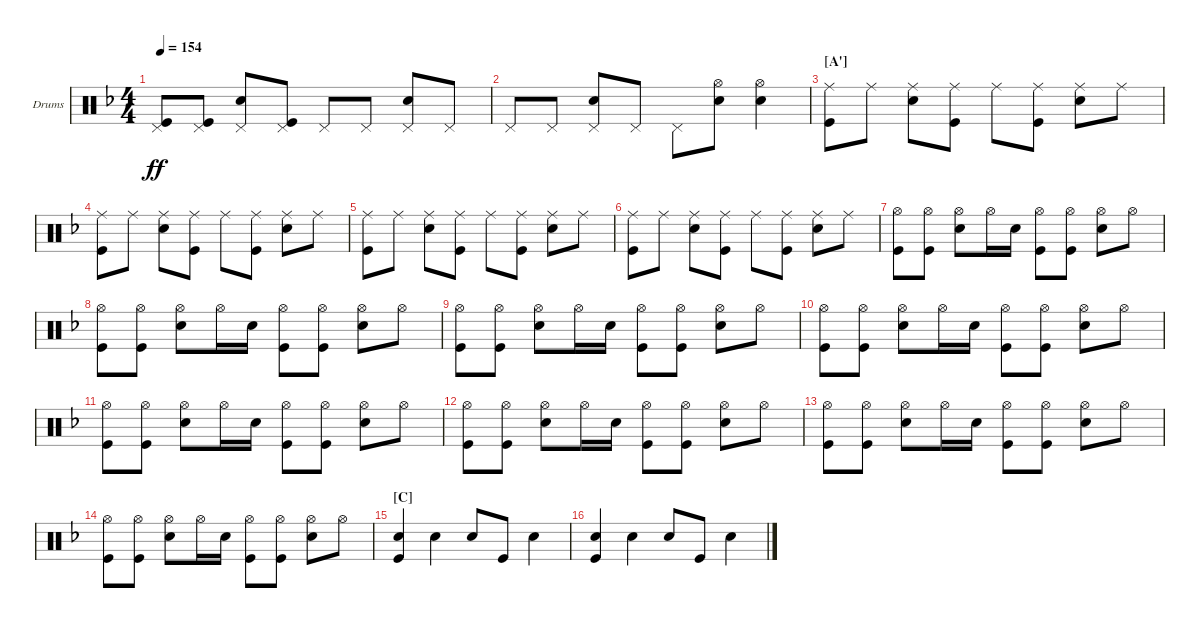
\bracketExtendMode groupsimilarinstruments
\firstSystemTrackNameOrientation horizontal
\otherSystemsTrackNameOrientation horizontal
\track ("Fabrizio Moretti" "Drums") {instrument percussion}
\staff {score}
\articulation defaults
\ts (4 4)
\tempo 154
\clef neutral
\ks f
("Pedal Hi-Hat (hit)" "Kick (hit)").8{dy ff} ("Pedal Hi-Hat (hit)" "Kick (hit)").8 ("Pedal Hi-Hat (hit)" "Snare (hit) 2").8 ("Pedal Hi-Hat (hit)" "Kick (hit)").8 "Pedal Hi-Hat (hit)".8 "Pedal Hi-Hat (hit)".8 ("Pedal Hi-Hat (hit)" "Snare (hit) 2").8 "Pedal Hi-Hat (hit)".8 |
"Pedal Hi-Hat (hit)".8 "Pedal Hi-Hat (hit)".8 ("Pedal Hi-Hat (hit)" "Snare (hit) 2").8 "Pedal Hi-Hat (hit)".8 "Pedal Hi-Hat (hit)".8 ("Hi-Hat (open)" "Snare (hit) 2").8 ("Hi-Hat (open)" "Snare (hit) 2").4 |
\section ("A'" "")
("Ride (middle)" "Kick (hit)").8 "Ride (middle)".8 ("Ride (middle)" "Snare (hit) 2").8 ("Ride (middle)" "Kick (hit)").8 "Ride (middle)".8 ("Ride (middle)" "Kick (hit)").8 ("Ride (middle)" "Snare (hit) 2").8 "Ride (middle)".8 |
("Ride (middle)" "Kick (hit)").8 "Ride (middle)".8 ("Ride (middle)" "Snare (hit) 2").8 ("Ride (middle)" "Kick (hit)").8 "Ride (middle)".8 ("Ride (middle)" "Kick (hit)").8 ("Ride (middle)" "Snare (hit) 2").8 "Ride (middle)".8 |
("Ride (middle)" "Kick (hit)").8 "Ride (middle)".8 ("Ride (middle)" "Snare (hit) 2").8 ("Ride (middle)" "Kick (hit)").8 "Ride (middle)".8 ("Ride (middle)" "Kick (hit)").8 ("Ride (middle)" "Snare (hit) 2").8 "Ride (middle)".8 |
("Ride (middle)" "Kick (hit)").8 "Ride (middle)".8 ("Ride (middle)" "Snare (hit) 2").8 ("Ride (middle)" "Kick (hit)").8 "Ride (middle)".8 ("Ride (middle)" "Kick (hit)").8 ("Ride (middle)" "Snare (hit) 2").8 "Ride (middle)".8 |
("Hi-Hat (open)" "Kick (hit)").8 ("Hi-Hat (open)" "Kick (hit)").8 ("Hi-Hat (open)" "Snare (hit) 2").8 "Hi-Hat (open)".16 "Snare (hit) 2".16 ("Hi-Hat (open)" "Kick (hit)").8 ("Hi-Hat (open)" "Kick (hit)").8 ("Hi-Hat (open)" "Snare (hit) 2").8 "Hi-Hat (open)".8 |
("Hi-Hat (open)" "Kick (hit)").8 ("Hi-Hat (open)" "Kick (hit)").8 ("Hi-Hat (open)" "Snare (hit) 2").8 "Hi-Hat (open)".16 "Snare (hit) 2".16 ("Hi-Hat (open)" "Kick (hit)").8 ("Hi-Hat (open)" "Kick (hit)").8 ("Hi-Hat (open)" "Snare (hit) 2").8 "Hi-Hat (open)".8 |
("Hi-Hat (open)" "Kick (hit)").8 ("Hi-Hat (open)" "Kick (hit)").8 ("Hi-Hat (open)" "Snare (hit) 2").8 "Hi-Hat (open)".16 "Snare (hit) 2".16 ("Hi-Hat (open)" "Kick (hit)").8 ("Hi-Hat (open)" "Kick (hit)").8 ("Hi-Hat (open)" "Snare (hit) 2").8 "Hi-Hat (open)".8 |
("Hi-Hat (open)" "Kick (hit)").8 ("Hi-Hat (open)" "Kick (hit)").8 ("Hi-Hat (open)" "Snare (hit) 2").8 "Hi-Hat (open)".16 "Snare (hit) 2".16 ("Hi-Hat (open)" "Kick (hit)").8 ("Hi-Hat (open)" "Kick (hit)").8 ("Hi-Hat (open)" "Snare (hit) 2").8 "Hi-Hat (open)".8 |
("Hi-Hat (open)" "Kick (hit)").8 ("Hi-Hat (open)" "Kick (hit)").8 ("Hi-Hat (open)" "Snare (hit) 2").8 "Hi-Hat (open)".16 "Snare (hit) 2".16 ("Hi-Hat (open)" "Kick (hit)").8 ("Hi-Hat (open)" "Kick (hit)").8 ("Hi-Hat (open)" "Snare (hit) 2").8 "Hi-Hat (open)".8 |
("Hi-Hat (open)" "Kick (hit)").8 ("Hi-Hat (open)" "Kick (hit)").8 ("Hi-Hat (open)" "Snare (hit) 2").8 "Hi-Hat (open)".16 "Snare (hit) 2".16 ("Hi-Hat (open)" "Kick (hit)").8 ("Hi-Hat (open)" "Kick (hit)").8 ("Hi-Hat (open)" "Snare (hit) 2").8 "Hi-Hat (open)".8 |
("Hi-Hat (open)" "Kick (hit)").8 ("Hi-Hat (open)" "Kick (hit)").8 ("Hi-Hat (open)" "Snare (hit) 2").8 "Hi-Hat (open)".16 "Snare (hit) 2".16 ("Hi-Hat (open)" "Kick (hit)").8 ("Hi-Hat (open)" "Kick (hit)").8 ("Hi-Hat (open)" "Snare (hit) 2").8 "Hi-Hat (open)".8 |
("Hi-Hat (open)" "Kick (hit)").8 ("Hi-Hat (open)" "Kick (hit)").8 ("Hi-Hat (open)" "Snare (hit) 2").8 "Hi-Hat (open)".16 "Snare (hit) 2".16 ("Hi-Hat (open)" "Kick (hit)").8 ("Hi-Hat (open)" "Kick (hit)").8 ("Hi-Hat (open)" "Snare (hit) 2").8 "Hi-Hat (open)".8 |
\section ("C" "")
("Snare (hit) 2" "Kick (hit)").4 "Snare (hit) 2".4 "Snare (hit) 2".8 "Kick (hit)".8 "Snare (hit) 2".4 |
("Snare (hit) 2" "Kick (hit)").4 "Snare (hit) 2".4 "Snare (hit) 2".8 "Kick (hit)".8 "Snare (hit) 2".4
